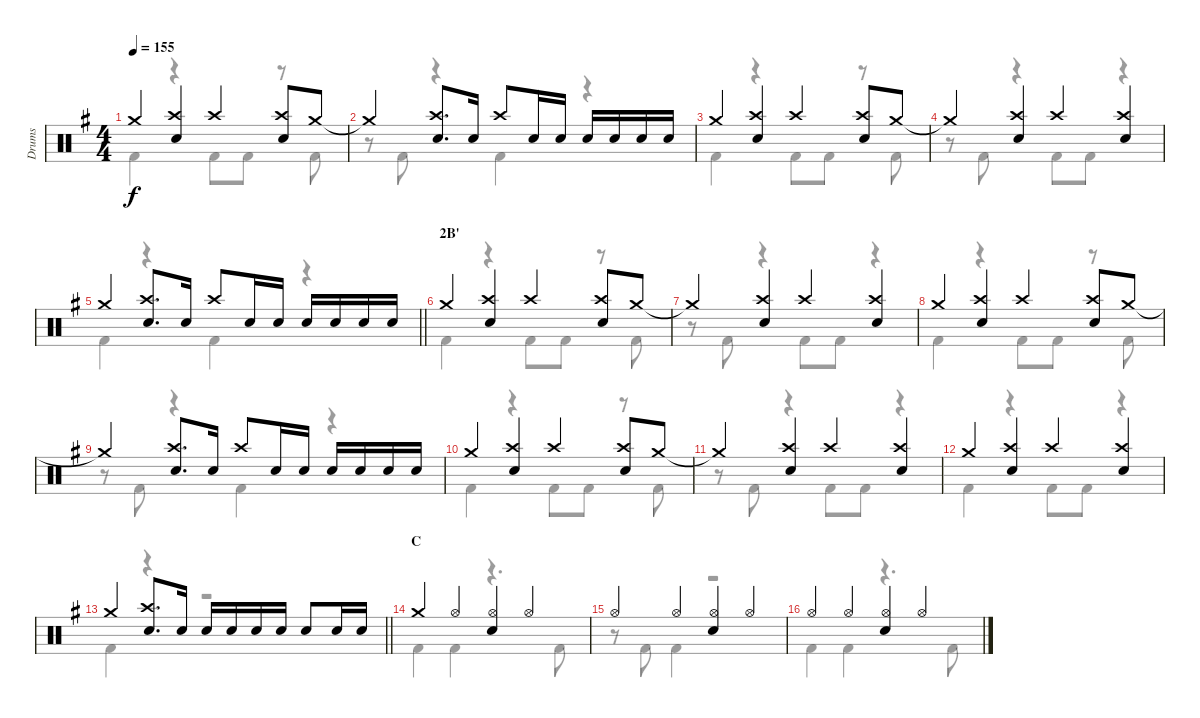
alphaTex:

\track ("Drums" "Drums") {instrument percussion}
\staff {score}
\articulation defaults
\voice
\ts (4 4)
\tempo 155
\clef neutral
\ks g "Crash medium (hit)".4{dy f}
("Crash high (hit)" "Electric Snare (hit)").4 "Crash high (hit)".4 ("Crash high (hit)" "Electric Snare (hit)").8 "Crash medium (hit)".8 |
"Crash medium (hit)"{t}.4 ("Crash high (hit)" "Electric Snare (hit)").8{d} "Electric Snare (hit)".16 "Crash high (hit)".8 "Electric Snare (hit)".16 "Electric Snare (hit)".16 "Electric Snare (hit)".16 "Electric Snare (hit)".16 "Electric Snare (hit)".16 "Electric Snare (hit)".16 |
"Crash medium (hit)".4 ("Crash high (hit)" "Electric Snare (hit)").4 "Crash high (hit)".4 ("Crash high (hit)" "Electric Snare (hit)").8 "Crash medium (hit)".8 |
"Crash medium (hit)"{t}.4 ("Crash high (hit)" "Electric Snare (hit)").4 "Crash high (hit)".4 ("Crash high (hit)" "Electric Snare (hit)").4 |
\barLineRight lightlight "Crash medium (hit)".4
("Crash high (hit)" "Electric Snare (hit)").8{d} "Electric Snare (hit)".16 "Crash high (hit)".8 "Electric Snare (hit)".16 "Electric Snare (hit)".16 "Electric Snare (hit)".16 "Electric Snare (hit)".16 "Electric Snare (hit)".16 "Electric Snare (hit)".16 |
\section ("" "2B'")
"Crash medium (hit)".4 ("Crash high (hit)" "Electric Snare (hit)").4 "Crash high (hit)".4 ("Crash high (hit)" "Electric Snare (hit)").8 "Crash medium (hit)".8 |
"Crash medium (hit)"{t}.4 ("Crash high (hit)" "Electric Snare (hit)").4 "Crash high (hit)".4 ("Crash high (hit)" "Electric Snare (hit)").4 |
"Crash medium (hit)".4 ("Crash high (hit)" "Electric Snare (hit)").4 "Crash high (hit)".4 ("Crash high (hit)" "Electric Snare (hit)").8 "Crash medium (hit)".8 |
"Crash medium (hit)"{t}.4 ("Crash high (hit)" "Electric Snare (hit)").8{d} "Electric Snare (hit)".16 "Crash high (hit)".8 "Electric Snare (hit)".16 "Electric Snare (hit)".16 "Electric Snare (hit)".16 "Electric Snare (hit)".16 "Electric Snare (hit)".16 "Electric Snare (hit)".16 |
"Crash medium (hit)".4 ("Crash high (hit)" "Electric Snare (hit)").4 "Crash high (hit)".4 ("Crash high (hit)" "Electric Snare (hit)").8 "Crash medium (hit)".8 |
"Crash medium (hit)"{t}.4 ("Crash high (hit)" "Electric Snare (hit)").4 "Crash high (hit)".4 ("Crash high (hit)" "Electric Snare (hit)").4 |
"Crash medium (hit)".4 ("Crash high (hit)" "Electric Snare (hit)").4 "Crash high (hit)".4 ("Crash high (hit)" "Electric Snare (hit)").4 |
\barLineRight lightlight "Crash medium (hit)".4
("Crash high (hit)" "Electric Snare (hit)").8{d} "Electric Snare (hit)".16 "Electric Snare (hit)".16 "Electric Snare (hit)".16 "Electric Snare (hit)".16 "Electric Snare (hit)".16 "Electric Snare (hit)".8 "Electric Snare (hit)".16 "Electric Snare (hit)".16 |
\section ("" "C")
"Crash medium (hit)".4 "Hi-Hat (open)".4 ("Hi-Hat (open)" "Electric Snare (hit)").4 "Hi-Hat (open)".4 |
"Hi-Hat (open)".4 "Hi-Hat (open)".4 ("Hi-Hat (open)" "Electric Snare (hit)").4 "Hi-Hat (open)".4 |
"Hi-Hat (open)".4 "Hi-Hat (open)".4 ("Hi-Hat (open)" "Electric Snare (hit)").4 "Hi-Hat (open)".4
\voice
\clef neutral
\ottava regular
\simile none
\ks g "Kick (hit) 2".4{dy f}
r.4 "Kick (hit) 2".8 "Kick (hit) 2".8 r.8 "Kick (hit) 2".8 |
r.8 "Kick (hit) 2".8 r.4 "Kick (hit) 2".4 r.4 |
"Kick (hit) 2".4 r.4 "Kick (hit) 2".8 "Kick (hit) 2".8 r.8 "Kick (hit) 2".8 |
r.8 "Kick (hit) 2".8 r.4 "Kick (hit) 2".8 "Kick (hit) 2".8 r.4 |
\barLineRight lightlight "Kick (hit) 2".4
r.4 "Kick (hit) 2".4 r.4 |
"Kick (hit) 2".4 r.4 "Kick (hit) 2".8 "Kick (hit) 2".8 r.8 "Kick (hit) 2".8 |
r.8 "Kick (hit) 2".8 r.4 "Kick (hit) 2".8 "Kick (hit) 2".8 r.4 |
"Kick (hit) 2".4 r.4 "Kick (hit) 2".8 "Kick (hit) 2".8 r.8 "Kick (hit) 2".8 |
r.8 "Kick (hit) 2".8 r.4 "Kick (hit) 2".4 r.4 |
"Kick (hit) 2".4 r.4 "Kick (hit) 2".8 "Kick (hit) 2".8 r.8 "Kick (hit) 2".8 |
r.8 "Kick (hit) 2".8 r.4 "Kick (hit) 2".8 "Kick (hit) 2".8 r.4 |
"Kick (hit) 2".4 r.4 "Kick (hit) 2".8 "Kick (hit) 2".8 r.4 |
\barLineRight lightlight "Kick (hit) 2".4
r.4 r.2 |
"Kick (hit) 2".4 "Kick (hit) 2".4 r.4{d} "Kick (hit) 2".8 |
r.8 "Kick (hit) 2".8 "Kick (hit) 2".4 r.2 |
"Kick (hit) 2".4 "Kick (hit) 2".4 r.4{d} "Kick (hit) 2".8
